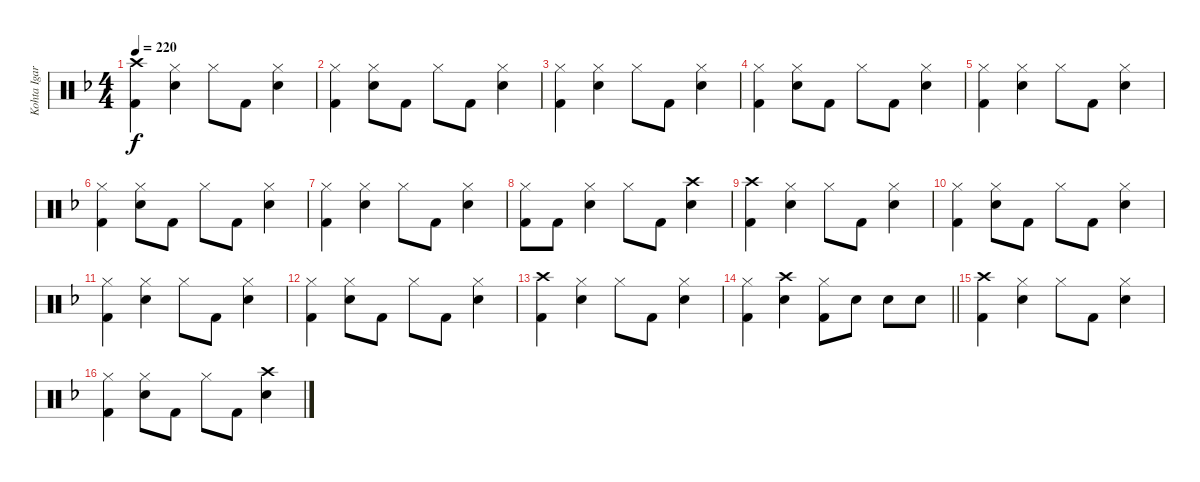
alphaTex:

\track ("Kohta Igarashi" "Kohta Igar") {instrument percussion}
\staff {score}
\articulation defaults
\ts (4 4)
\tempo 220
\clef neutral
\ks f
("Crash high (hit)" "Kick (hit) 2").4{dy f} ("Hi-Hat (closed)" "Electric Snare (hit)").4 "Hi-Hat (closed)".8 "Kick (hit) 2".8 ("Hi-Hat (closed)" "Electric Snare (hit)").4 |
("Hi-Hat (closed)" "Kick (hit) 2").4 ("Hi-Hat (closed)" "Electric Snare (hit)").8 "Kick (hit) 2".8 "Hi-Hat (closed)".8 "Kick (hit) 2".8 ("Hi-Hat (closed)" "Electric Snare (hit)").4 |
("Hi-Hat (closed)" "Kick (hit) 2").4 ("Hi-Hat (closed)" "Electric Snare (hit)").4 "Hi-Hat (closed)".8 "Kick (hit) 2".8 ("Hi-Hat (closed)" "Electric Snare (hit)").4 |
("Hi-Hat (closed)" "Kick (hit) 2").4 ("Hi-Hat (closed)" "Electric Snare (hit)").8 "Kick (hit) 2".8 "Hi-Hat (closed)".8 "Kick (hit) 2".8 ("Hi-Hat (closed)" "Electric Snare (hit)").4 |
("Hi-Hat (closed)" "Kick (hit) 2").4 ("Hi-Hat (closed)" "Electric Snare (hit)").4 "Hi-Hat (closed)".8 "Kick (hit) 2".8 ("Hi-Hat (closed)" "Electric Snare (hit)").4 |
("Hi-Hat (closed)" "Kick (hit) 2").4 ("Hi-Hat (closed)" "Electric Snare (hit)").8 "Kick (hit) 2".8 "Hi-Hat (closed)".8 "Kick (hit) 2".8 ("Hi-Hat (closed)" "Electric Snare (hit)").4 |
("Hi-Hat (closed)" "Kick (hit) 2").4 ("Hi-Hat (closed)" "Electric Snare (hit)").4 "Hi-Hat (closed)".8 "Kick (hit) 2".8 ("Hi-Hat (closed)" "Electric Snare (hit)").4 |
("Hi-Hat (closed)" "Kick (hit) 2").8 "Kick (hit) 2".8 ("Hi-Hat (closed)" "Electric Snare (hit)").4 "Hi-Hat (closed)".8 "Kick (hit) 2".8 ("Crash high (hit)" "Electric Snare (hit)").4 |
("Crash high (hit)" "Kick (hit) 2").4 ("Hi-Hat (closed)" "Electric Snare (hit)").4 "Hi-Hat (closed)".8 "Kick (hit) 2".8 ("Hi-Hat (closed)" "Electric Snare (hit)").4 |
("Hi-Hat (closed)" "Kick (hit) 2").4 ("Hi-Hat (closed)" "Electric Snare (hit)").8 "Kick (hit) 2".8 "Hi-Hat (closed)".8 "Kick (hit) 2".8 ("Hi-Hat (closed)" "Electric Snare (hit)").4 |
("Hi-Hat (closed)" "Kick (hit) 2").4 ("Hi-Hat (closed)" "Electric Snare (hit)").4 "Hi-Hat (closed)".8 "Kick (hit) 2".8 ("Hi-Hat (closed)" "Electric Snare (hit)").4 |
("Hi-Hat (closed)" "Kick (hit) 2").4 ("Hi-Hat (closed)" "Electric Snare (hit)").8 "Kick (hit) 2".8 "Hi-Hat (closed)".8 "Kick (hit) 2".8 ("Hi-Hat (closed)" "Electric Snare (hit)").4 |
("Crash high (hit)" "Kick (hit) 2").4 ("Hi-Hat (closed)" "Electric Snare (hit)").4 "Hi-Hat (closed)".8 "Kick (hit) 2".8 ("Hi-Hat (closed)" "Electric Snare (hit)").4 |
\barLineRight lightlight
("Hi-Hat (closed)" "Kick (hit) 2").4 ("Crash high (hit)" "Electric Snare (hit)").4 ("Hi-Hat (closed)" "Kick (hit) 2").8 "Electric Snare (hit)".8 "Electric Snare (hit)".8 "Electric Snare (hit)".8 |
("Crash high (hit)" "Kick (hit) 2").4 ("Hi-Hat (closed)" "Electric Snare (hit)").4 "Hi-Hat (closed)".8 "Kick (hit) 2".8 ("Hi-Hat (closed)" "Electric Snare (hit)").4 |
("Hi-Hat (closed)" "Kick (hit) 2").4 ("Hi-Hat (closed)" "Electric Snare (hit)").8 "Kick (hit) 2".8 "Hi-Hat (closed)".8 "Kick (hit) 2".8 ("Crash high (hit)" "Electric Snare (hit)").4
